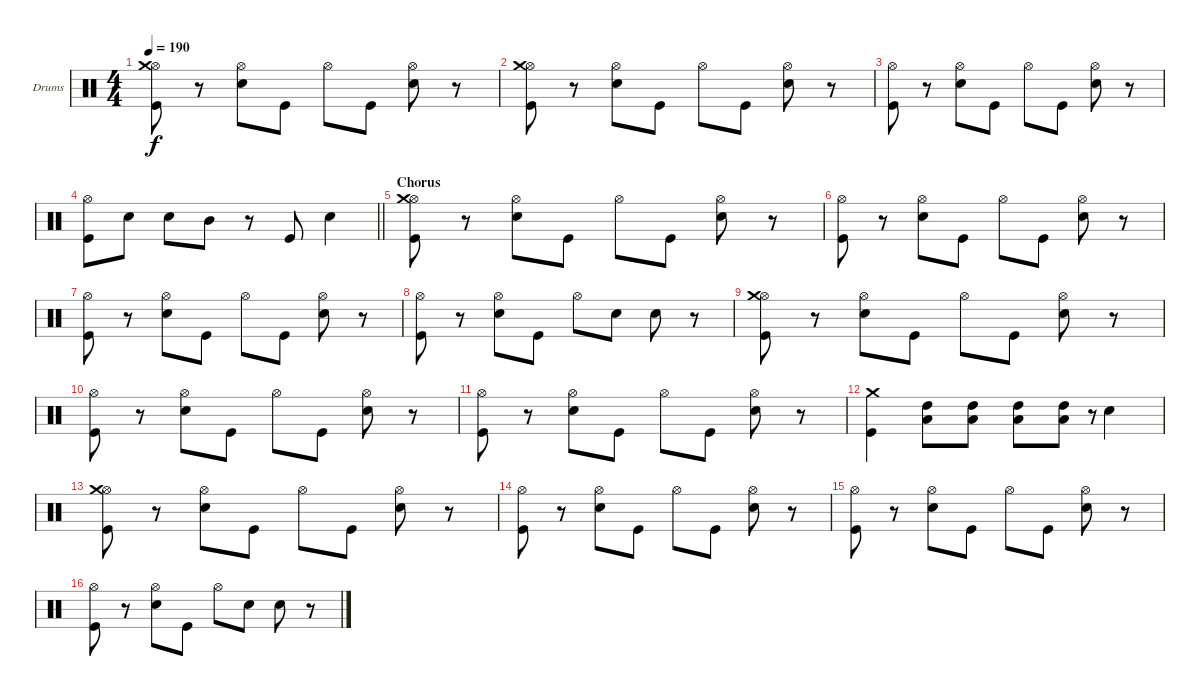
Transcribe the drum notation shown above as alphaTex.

\bracketExtendMode groupsimilarinstruments
\firstSystemTrackNameOrientation horizontal
\otherSystemsTrackNameOrientation horizontal
\track ("Drumkit" "Drums") {instrument percussion}
\staff {score}
\articulation defaults
\ts (4 4)
\tempo 190
\clef neutral
\ks c
("Hi-Hat (open)" "Crash medium (hit)" "Kick (hit)").8{dy f} r.8 ("Hi-Hat (open)" "Snare (hit) 2").8 "Kick (hit)".8 "Hi-Hat (open)".8 "Kick (hit)".8 ("Hi-Hat (open)" "Snare (hit) 2").8 r.8 |
("Hi-Hat (open)" "Crash medium (hit)" "Kick (hit)").8 r.8 ("Hi-Hat (open)" "Snare (hit) 2").8 "Kick (hit)".8 "Hi-Hat (open)".8 "Kick (hit)".8 ("Hi-Hat (open)" "Snare (hit) 2").8 r.8 |
("Hi-Hat (open)" "Kick (hit)").8 r.8 ("Hi-Hat (open)" "Snare (hit) 2").8 "Kick (hit)".8 "Hi-Hat (open)".8 "Kick (hit)".8 ("Hi-Hat (open)" "Snare (hit) 2").8 r.8 |
\barLineRight lightlight
("Kick (hit)" "Hi-Hat (open)").8 "Snare (hit) 2".8 "Snare (hit) 2".8 "Mid Tom (hit)".8 r.8 "Kick (hit)".8 "Snare (hit) 2".4 |
\section ("" "Chorus")
("Hi-Hat (open)" "Crash medium (hit)" "Kick (hit)").8 r.8 ("Hi-Hat (open)" "Snare (hit) 2").8 "Kick (hit)".8 "Hi-Hat (open)".8 "Kick (hit)".8 ("Hi-Hat (open)" "Snare (hit) 2").8 r.8 |
("Hi-Hat (open)" "Kick (hit)").8 r.8 ("Hi-Hat (open)" "Snare (hit) 2").8 "Kick (hit)".8 "Hi-Hat (open)".8 "Kick (hit)".8 ("Hi-Hat (open)" "Snare (hit) 2").8 r.8 |
("Hi-Hat (open)" "Kick (hit)").8 r.8 ("Hi-Hat (open)" "Snare (hit) 2").8 "Kick (hit)".8 "Hi-Hat (open)".8 "Kick (hit)".8 ("Hi-Hat (open)" "Snare (hit) 2").8 r.8 |
("Hi-Hat (open)" "Kick (hit)").8 r.8 ("Hi-Hat (open)" "Snare (hit) 2").8 "Kick (hit)".8 "Hi-Hat (open)".8 "Snare (hit) 2".8 "Snare (hit) 2".8 r.8 |
("Hi-Hat (open)" "Crash medium (hit)" "Kick (hit)").8 r.8 ("Hi-Hat (open)" "Snare (hit) 2").8 "Kick (hit)".8 "Hi-Hat (open)".8 "Kick (hit)".8 ("Hi-Hat (open)" "Snare (hit) 2").8 r.8 |
("Hi-Hat (open)" "Kick (hit)").8 r.8 ("Hi-Hat (open)" "Snare (hit) 2").8 "Kick (hit)".8 "Hi-Hat (open)".8 "Kick (hit)".8 ("Hi-Hat (open)" "Snare (hit) 2").8 r.8 |
("Hi-Hat (open)" "Kick (hit)").8 r.8 ("Hi-Hat (open)" "Snare (hit) 2").8 "Kick (hit)".8 "Hi-Hat (open)".8 "Kick (hit)".8 ("Hi-Hat (open)" "Snare (hit) 2").8 r.8 |
("Crash medium (hit)" "Kick (hit)").4 ("Low Tom (hit)" "High Tom (hit)").8 ("Low Tom (hit)" "High Tom (hit)").8 ("Low Tom (hit)" "High Tom (hit)").8 ("Low Tom (hit)" "High Tom (hit)").8 r.8{gr} "Snare (hit) 2".4 |
("Hi-Hat (open)" "Crash medium (hit)" "Kick (hit)").8 r.8 ("Hi-Hat (open)" "Snare (hit) 2").8 "Kick (hit)".8 "Hi-Hat (open)".8 "Kick (hit)".8 ("Hi-Hat (open)" "Snare (hit) 2").8 r.8 |
("Hi-Hat (open)" "Kick (hit)").8 r.8 ("Hi-Hat (open)" "Snare (hit) 2").8 "Kick (hit)".8 "Hi-Hat (open)".8 "Kick (hit)".8 ("Hi-Hat (open)" "Snare (hit) 2").8 r.8 |
("Hi-Hat (open)" "Kick (hit)").8 r.8 ("Hi-Hat (open)" "Snare (hit) 2").8 "Kick (hit)".8 "Hi-Hat (open)".8 "Kick (hit)".8 ("Hi-Hat (open)" "Snare (hit) 2").8 r.8 |
("Hi-Hat (open)" "Kick (hit)").8 r.8 ("Hi-Hat (open)" "Snare (hit) 2").8 "Kick (hit)".8 "Hi-Hat (open)".8 "Snare (hit) 2".8 "Snare (hit) 2".8 r.8
